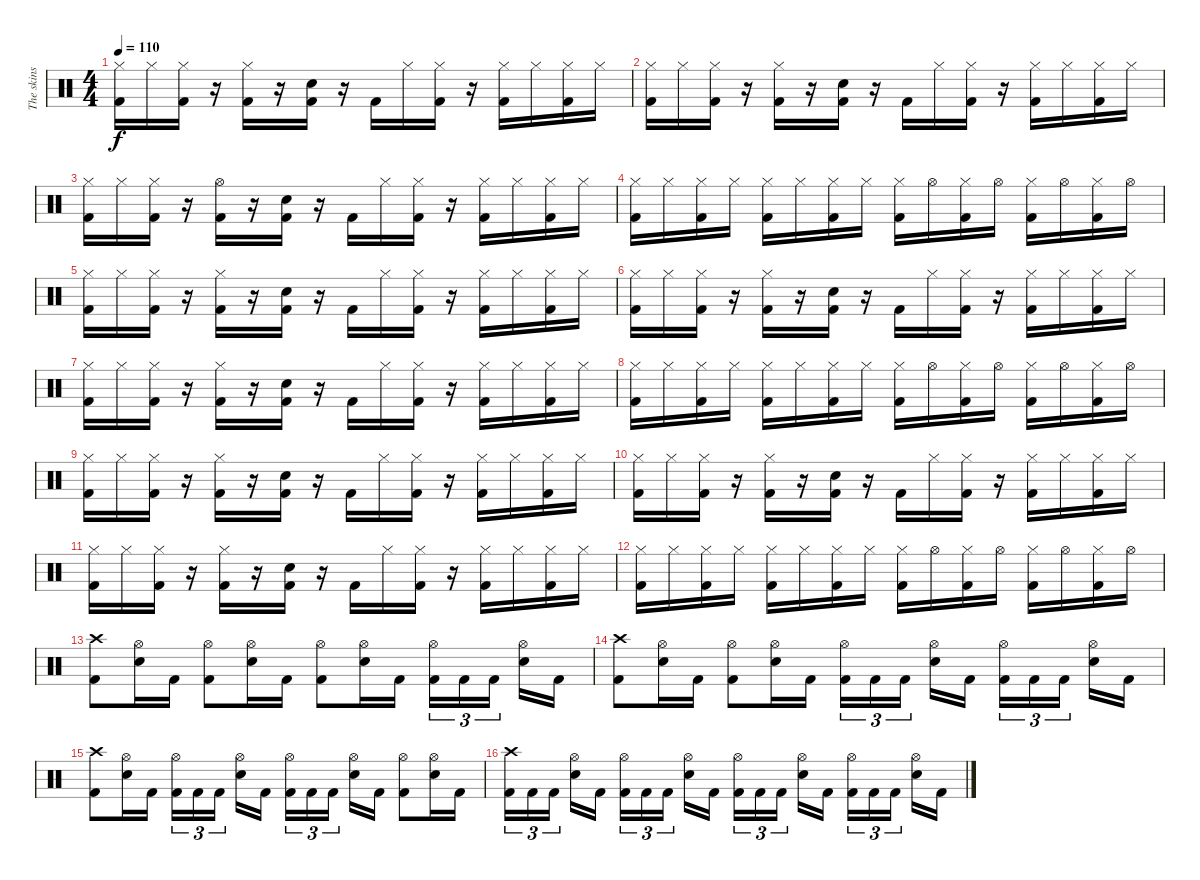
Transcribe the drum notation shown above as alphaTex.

\track ("The skins" "The skins") {instrument percussion}
\staff {score}
\articulation defaults
\ts (4 4)
\tempo 110
\clef neutral
\ks c
("Hi-Hat (closed)" "Kick (hit) 2").16{dy f} "Hi-Hat (closed)".16 ("Hi-Hat (closed)" "Kick (hit) 2").16 r.16 ("Hi-Hat (closed)" "Kick (hit) 2").16 r.16 ("Electric Snare (hit)" "Kick (hit) 2").16 r.16 "Kick (hit) 2".16 "Hi-Hat (closed)".16 ("Hi-Hat (closed)" "Kick (hit) 2").16 r.16 ("Hi-Hat (closed)" "Kick (hit) 2").16 "Hi-Hat (closed)".16 ("Hi-Hat (closed)" "Kick (hit) 2").16 "Hi-Hat (closed)".16 |
("Hi-Hat (closed)" "Kick (hit) 2").16 "Hi-Hat (closed)".16 ("Hi-Hat (closed)" "Kick (hit) 2").16 r.16 ("Hi-Hat (closed)" "Kick (hit) 2").16 r.16 ("Electric Snare (hit)" "Kick (hit) 2").16 r.16 "Kick (hit) 2".16 "Hi-Hat (closed)".16 ("Hi-Hat (closed)" "Kick (hit) 2").16 r.16 ("Hi-Hat (closed)" "Kick (hit) 2").16 "Hi-Hat (closed)".16 ("Hi-Hat (closed)" "Kick (hit) 2").16 "Hi-Hat (closed)".16 |
("Hi-Hat (closed)" "Kick (hit) 2").16 "Hi-Hat (closed)".16 ("Hi-Hat (closed)" "Kick (hit) 2").16 r.16 ("Hi-Hat (open)" "Kick (hit) 2").16 r.16 ("Electric Snare (hit)" "Kick (hit) 2").16 r.16 "Kick (hit) 2".16 "Hi-Hat (closed)".16 ("Hi-Hat (closed)" "Kick (hit) 2").16 r.16 ("Hi-Hat (closed)" "Kick (hit) 2").16 "Hi-Hat (closed)".16 ("Hi-Hat (closed)" "Kick (hit) 2").16 "Hi-Hat (closed)".16 |
("Hi-Hat (closed)" "Kick (hit) 2").16 "Hi-Hat (closed)".16 ("Hi-Hat (closed)" "Kick (hit) 2").16 "Hi-Hat (closed)".16 ("Hi-Hat (closed)" "Kick (hit) 2").16 "Hi-Hat (closed)".16 ("Hi-Hat (closed)" "Kick (hit) 2").16 "Hi-Hat (closed)".16 ("Hi-Hat (closed)" "Kick (hit) 2").16 "Hi-Hat (open)".16 ("Hi-Hat (closed)" "Kick (hit) 2").16 "Hi-Hat (open)".16 ("Hi-Hat (closed)" "Kick (hit) 2").16 "Hi-Hat (open)".16 ("Hi-Hat (closed)" "Kick (hit) 2").16 "Hi-Hat (open)".16 |
("Hi-Hat (closed)" "Kick (hit) 2").16 "Hi-Hat (closed)".16 ("Hi-Hat (closed)" "Kick (hit) 2").16 r.16 ("Hi-Hat (closed)" "Kick (hit) 2").16 r.16 ("Electric Snare (hit)" "Kick (hit) 2").16 r.16 "Kick (hit) 2".16 "Hi-Hat (closed)".16 ("Hi-Hat (closed)" "Kick (hit) 2").16 r.16 ("Hi-Hat (closed)" "Kick (hit) 2").16 "Hi-Hat (closed)".16 ("Hi-Hat (closed)" "Kick (hit) 2").16 "Hi-Hat (closed)".16 |
("Hi-Hat (closed)" "Kick (hit) 2").16 "Hi-Hat (closed)".16 ("Hi-Hat (closed)" "Kick (hit) 2").16 r.16 ("Hi-Hat (closed)" "Kick (hit) 2").16 r.16 ("Electric Snare (hit)" "Kick (hit) 2").16 r.16 "Kick (hit) 2".16 "Hi-Hat (closed)".16 ("Hi-Hat (closed)" "Kick (hit) 2").16 r.16 ("Hi-Hat (closed)" "Kick (hit) 2").16 "Hi-Hat (closed)".16 ("Hi-Hat (closed)" "Kick (hit) 2").16 "Hi-Hat (closed)".16 |
("Hi-Hat (closed)" "Kick (hit) 2").16 "Hi-Hat (closed)".16 ("Hi-Hat (closed)" "Kick (hit) 2").16 r.16 ("Hi-Hat (closed)" "Kick (hit) 2").16 r.16 ("Electric Snare (hit)" "Kick (hit) 2").16 r.16 "Kick (hit) 2".16 "Hi-Hat (closed)".16 ("Hi-Hat (closed)" "Kick (hit) 2").16 r.16 ("Hi-Hat (closed)" "Kick (hit) 2").16 "Hi-Hat (closed)".16 ("Hi-Hat (closed)" "Kick (hit) 2").16 "Hi-Hat (closed)".16 |
("Hi-Hat (closed)" "Kick (hit) 2").16 "Hi-Hat (closed)".16 ("Hi-Hat (closed)" "Kick (hit) 2").16 "Hi-Hat (closed)".16 ("Hi-Hat (closed)" "Kick (hit) 2").16 "Hi-Hat (closed)".16 ("Hi-Hat (closed)" "Kick (hit) 2").16 "Hi-Hat (closed)".16 ("Hi-Hat (closed)" "Kick (hit) 2").16 "Hi-Hat (open)".16 ("Hi-Hat (closed)" "Kick (hit) 2").16 "Hi-Hat (open)".16 ("Hi-Hat (closed)" "Kick (hit) 2").16 "Hi-Hat (open)".16 ("Hi-Hat (closed)" "Kick (hit) 2").16 "Hi-Hat (open)".16 |
("Hi-Hat (closed)" "Kick (hit) 2").16 "Hi-Hat (closed)".16 ("Hi-Hat (closed)" "Kick (hit) 2").16 r.16 ("Hi-Hat (closed)" "Kick (hit) 2").16 r.16 ("Electric Snare (hit)" "Kick (hit) 2").16 r.16 "Kick (hit) 2".16 "Hi-Hat (closed)".16 ("Hi-Hat (closed)" "Kick (hit) 2").16 r.16 ("Hi-Hat (closed)" "Kick (hit) 2").16 "Hi-Hat (closed)".16 ("Hi-Hat (closed)" "Kick (hit) 2").16 "Hi-Hat (closed)".16 |
("Hi-Hat (closed)" "Kick (hit) 2").16 "Hi-Hat (closed)".16 ("Hi-Hat (closed)" "Kick (hit) 2").16 r.16 ("Hi-Hat (closed)" "Kick (hit) 2").16 r.16 ("Electric Snare (hit)" "Kick (hit) 2").16 r.16 "Kick (hit) 2".16 "Hi-Hat (closed)".16 ("Hi-Hat (closed)" "Kick (hit) 2").16 r.16 ("Hi-Hat (closed)" "Kick (hit) 2").16 "Hi-Hat (closed)".16 ("Hi-Hat (closed)" "Kick (hit) 2").16 "Hi-Hat (closed)".16 |
("Hi-Hat (closed)" "Kick (hit) 2").16 "Hi-Hat (closed)".16 ("Hi-Hat (closed)" "Kick (hit) 2").16 r.16 ("Hi-Hat (closed)" "Kick (hit) 2").16 r.16 ("Electric Snare (hit)" "Kick (hit) 2").16 r.16 "Kick (hit) 2".16 "Hi-Hat (closed)".16 ("Hi-Hat (closed)" "Kick (hit) 2").16 r.16 ("Hi-Hat (closed)" "Kick (hit) 2").16 "Hi-Hat (closed)".16 ("Hi-Hat (closed)" "Kick (hit) 2").16 "Hi-Hat (closed)".16 |
("Hi-Hat (closed)" "Kick (hit) 2").16 "Hi-Hat (closed)".16 ("Hi-Hat (closed)" "Kick (hit) 2").16 "Hi-Hat (closed)".16 ("Hi-Hat (closed)" "Kick (hit) 2").16 "Hi-Hat (closed)".16 ("Hi-Hat (closed)" "Kick (hit) 2").16 "Hi-Hat (closed)".16 ("Hi-Hat (closed)" "Kick (hit) 2").16 "Hi-Hat (open)".16 ("Hi-Hat (closed)" "Kick (hit) 2").16 "Hi-Hat (open)".16 ("Hi-Hat (closed)" "Kick (hit) 2").16 "Hi-Hat (open)".16 ("Hi-Hat (closed)" "Kick (hit) 2").16 "Hi-Hat (open)".16 |
("Crash high (hit)" "Kick (hit) 2").8 ("Hi-Hat (open)" "Electric Snare (hit)").16 "Kick (hit) 2".16 ("Hi-Hat (open)" "Kick (hit) 2").8 ("Hi-Hat (open)" "Electric Snare (hit)").16 "Kick (hit) 2".16 ("Hi-Hat (open)" "Kick (hit) 2").8 ("Hi-Hat (open)" "Electric Snare (hit)").16 "Kick (hit) 2".16 ("Hi-Hat (open)" "Kick (hit) 2").16{tu (3 2)} "Kick (hit) 2".16{tu (3 2)} "Kick (hit) 2".16{tu (3 2)} ("Hi-Hat (open)" "Electric Snare (hit)").16 "Kick (hit) 2".16 |
("Crash high (hit)" "Kick (hit) 2").8 ("Hi-Hat (open)" "Electric Snare (hit)").16 "Kick (hit) 2".16 ("Hi-Hat (open)" "Kick (hit) 2").8 ("Hi-Hat (open)" "Electric Snare (hit)").16 "Kick (hit) 2".16 ("Hi-Hat (open)" "Kick (hit) 2").16{tu (3 2)} "Kick (hit) 2".16{tu (3 2)} "Kick (hit) 2".16{tu (3 2)} ("Hi-Hat (open)" "Electric Snare (hit)").16 "Kick (hit) 2".16 ("Hi-Hat (open)" "Kick (hit) 2").16{tu (3 2)} "Kick (hit) 2".16{tu (3 2)} "Kick (hit) 2".16{tu (3 2)} ("Hi-Hat (open)" "Electric Snare (hit)").16 "Kick (hit) 2".16 |
("Crash high (hit)" "Kick (hit) 2").8 ("Hi-Hat (open)" "Electric Snare (hit)").16 "Kick (hit) 2".16 ("Hi-Hat (open)" "Kick (hit) 2").16{tu (3 2)} "Kick (hit) 2".16{tu (3 2)} "Kick (hit) 2".16{tu (3 2)} ("Hi-Hat (open)" "Electric Snare (hit)").16 "Kick (hit) 2".16 ("Hi-Hat (open)" "Kick (hit) 2").16{tu (3 2)} "Kick (hit) 2".16{tu (3 2)} "Kick (hit) 2".16{tu (3 2)} ("Hi-Hat (open)" "Electric Snare (hit)").16 "Kick (hit) 2".16 ("Hi-Hat (open)" "Kick (hit) 2").8 ("Hi-Hat (open)" "Electric Snare (hit)").16 "Kick (hit) 2".16 |
("Crash high (hit)" "Kick (hit) 2").16{tu (3 2)} "Kick (hit) 2".16{tu (3 2)} "Kick (hit) 2".16{tu (3 2)} ("Hi-Hat (open)" "Electric Snare (hit)").16 "Kick (hit) 2".16 ("Hi-Hat (open)" "Kick (hit) 2").16{tu (3 2)} "Kick (hit) 2".16{tu (3 2)} "Kick (hit) 2".16{tu (3 2)} ("Hi-Hat (open)" "Electric Snare (hit)").16 "Kick (hit) 2".16 ("Hi-Hat (open)" "Kick (hit) 2").16{tu (3 2)} "Kick (hit) 2".16{tu (3 2)} "Kick (hit) 2".16{tu (3 2)} ("Hi-Hat (open)" "Electric Snare (hit)").16 "Kick (hit) 2".16 ("Hi-Hat (open)" "Kick (hit) 2").16{tu (3 2)} "Kick (hit) 2".16{tu (3 2)} "Kick (hit) 2".16{tu (3 2)} ("Hi-Hat (open)" "Electric Snare (hit)").16 "Kick (hit) 2".16
